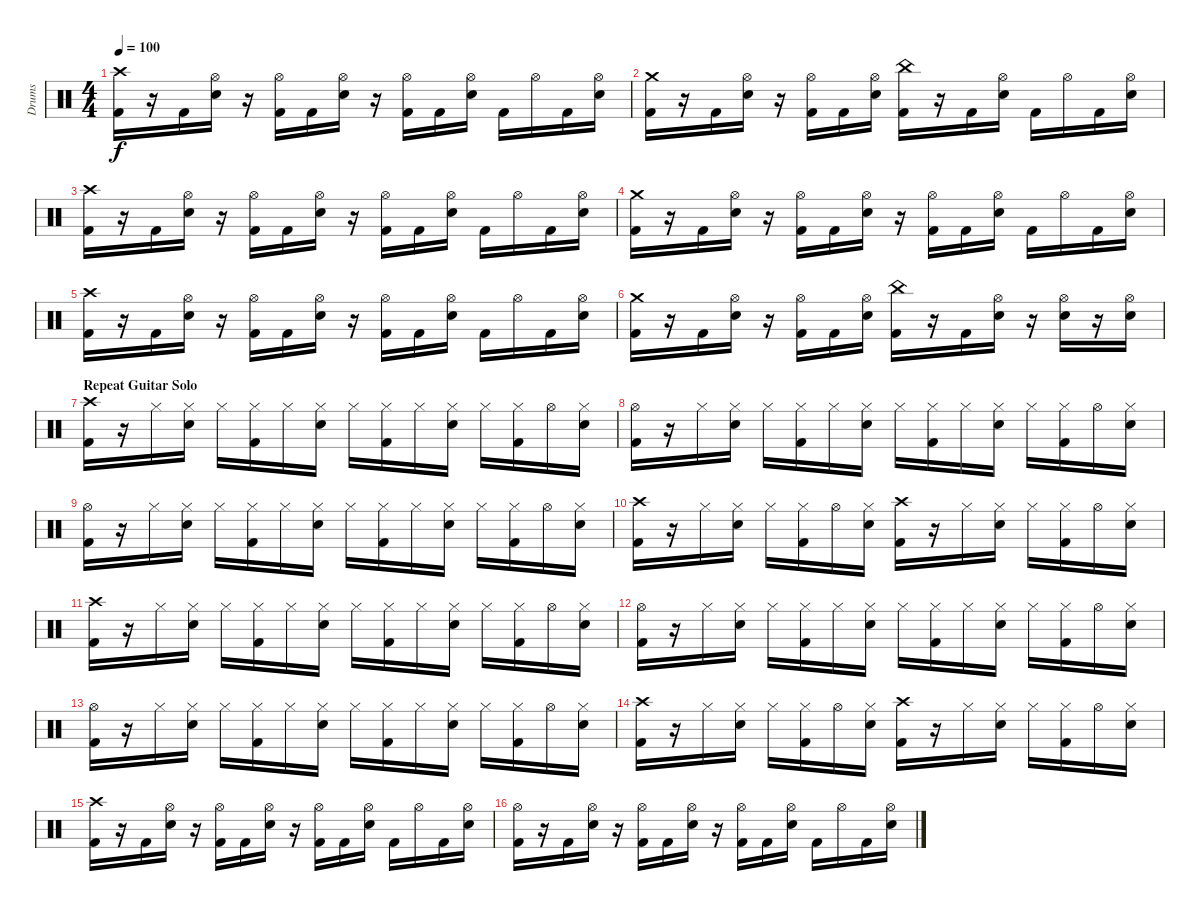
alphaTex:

\track ("Drums" "Drums") {instrument percussion}
\staff {score}
\articulation defaults
\ts (4 4)
\tempo 100
\clef neutral
\ks c
("Crash high (hit)" "Kick (hit) 2").16{dy f} r.16 "Kick (hit) 2".16 ("Hi-Hat (open)" "Snare (hit) 2").16 r.16 ("Hi-Hat (open)" "Kick (hit) 2").16 "Kick (hit) 2".16 ("Hi-Hat (open)" "Snare (hit) 2").16 r.16 ("Hi-Hat (open)" "Kick (hit) 2").16 "Kick (hit) 2".16 ("Hi-Hat (open)" "Snare (hit) 2").16 "Kick (hit) 2".16 "Hi-Hat (open)".16 "Kick (hit) 2".16 ("Hi-Hat (open)" "Snare (hit) 2").16 |
("Crash medium (hit)" "Kick (hit) 2").16 r.16 "Kick (hit) 2".16 ("Hi-Hat (open)" "Snare (hit) 2").16 r.16 ("Hi-Hat (open)" "Kick (hit) 2").16 "Kick (hit) 2".16 ("Hi-Hat (open)" "Snare (hit) 2").16 ("China (hit)" "Kick (hit) 2").16 r.16 "Kick (hit) 2".16 ("Hi-Hat (open)" "Snare (hit) 2").16 "Kick (hit) 2".16 "Hi-Hat (open)".16 "Kick (hit) 2".16 ("Hi-Hat (open)" "Snare (hit) 2").16 |
("Crash high (hit)" "Kick (hit) 2").16 r.16 "Kick (hit) 2".16 ("Hi-Hat (open)" "Snare (hit) 2").16 r.16 ("Hi-Hat (open)" "Kick (hit) 2").16 "Kick (hit) 2".16 ("Hi-Hat (open)" "Snare (hit) 2").16 r.16 ("Hi-Hat (open)" "Kick (hit) 2").16 "Kick (hit) 2".16 ("Hi-Hat (open)" "Snare (hit) 2").16 "Kick (hit) 2".16 "Hi-Hat (open)".16 "Kick (hit) 2".16 ("Hi-Hat (open)" "Snare (hit) 2").16 |
("Crash medium (hit)" "Kick (hit) 2").16 r.16 "Kick (hit) 2".16 ("Hi-Hat (open)" "Snare (hit) 2").16 r.16 ("Hi-Hat (open)" "Kick (hit) 2").16 "Kick (hit) 2".16 ("Hi-Hat (open)" "Snare (hit) 2").16 r.16 ("Hi-Hat (open)" "Kick (hit) 2").16 "Kick (hit) 2".16 ("Hi-Hat (open)" "Snare (hit) 2").16 "Kick (hit) 2".16 "Hi-Hat (open)".16 "Kick (hit) 2".16 ("Hi-Hat (open)" "Snare (hit) 2").16 |
("Crash high (hit)" "Kick (hit) 2").16 r.16 "Kick (hit) 2".16 ("Hi-Hat (open)" "Snare (hit) 2").16 r.16 ("Hi-Hat (open)" "Kick (hit) 2").16 "Kick (hit) 2".16 ("Hi-Hat (open)" "Snare (hit) 2").16 r.16 ("Hi-Hat (open)" "Kick (hit) 2").16 "Kick (hit) 2".16 ("Hi-Hat (open)" "Snare (hit) 2").16 "Kick (hit) 2".16 "Hi-Hat (open)".16 "Kick (hit) 2".16 ("Hi-Hat (open)" "Snare (hit) 2").16 |
("Crash medium (hit)" "Kick (hit) 2").16 r.16 "Kick (hit) 2".16 ("Hi-Hat (open)" "Snare (hit) 2").16 r.16 ("Hi-Hat (open)" "Kick (hit) 2").16 "Kick (hit) 2".16 ("Hi-Hat (open)" "Snare (hit) 2").16 ("China (hit)" "Kick (hit) 2").16 r.16 "Kick (hit) 2".16 ("Hi-Hat (open)" "Snare (hit) 2").16 r.16 ("Hi-Hat (open)" "Snare (hit) 2").16 r.16 ("Hi-Hat (open)" "Snare (hit) 2").16 |
\section ("" "Repeat Guitar Solo")
("Crash high (hit)" "Kick (hit) 2").16 r.16 "Hi-Hat (closed)".16 ("Hi-Hat (closed)" "Snare (hit) 2").16 "Hi-Hat (closed)".16 ("Hi-Hat (closed)" "Kick (hit) 2").16 "Hi-Hat (closed)".16 ("Hi-Hat (closed)" "Snare (hit) 2").16 "Hi-Hat (closed)".16 ("Hi-Hat (closed)" "Kick (hit) 2").16 "Hi-Hat (closed)".16 ("Hi-Hat (closed)" "Snare (hit) 2").16 "Hi-Hat (closed)".16 ("Hi-Hat (closed)" "Kick (hit) 2").16 "Hi-Hat (open)".16 ("Hi-Hat (closed)" "Snare (hit) 2").16 |
("Hi-Hat (open)" "Kick (hit) 2").16 r.16 "Hi-Hat (closed)".16 ("Hi-Hat (closed)" "Snare (hit) 2").16 "Hi-Hat (closed)".16 ("Hi-Hat (closed)" "Kick (hit) 2").16 "Hi-Hat (closed)".16 ("Hi-Hat (closed)" "Snare (hit) 2").16 "Hi-Hat (closed)".16 ("Hi-Hat (closed)" "Kick (hit) 2").16 "Hi-Hat (closed)".16 ("Hi-Hat (closed)" "Snare (hit) 2").16 "Hi-Hat (closed)".16 ("Hi-Hat (closed)" "Kick (hit) 2").16 "Hi-Hat (open)".16 ("Hi-Hat (closed)" "Snare (hit) 2").16 |
("Hi-Hat (open)" "Kick (hit) 2").16 r.16 "Hi-Hat (closed)".16 ("Hi-Hat (closed)" "Snare (hit) 2").16 "Hi-Hat (closed)".16 ("Hi-Hat (closed)" "Kick (hit) 2").16 "Hi-Hat (closed)".16 ("Hi-Hat (closed)" "Snare (hit) 2").16 "Hi-Hat (closed)".16 ("Hi-Hat (closed)" "Kick (hit) 2").16 "Hi-Hat (closed)".16 ("Hi-Hat (closed)" "Snare (hit) 2").16 "Hi-Hat (closed)".16 ("Hi-Hat (closed)" "Kick (hit) 2").16 "Hi-Hat (open)".16 ("Hi-Hat (closed)" "Snare (hit) 2").16 |
("Crash high (hit)" "Kick (hit) 2").16 r.16 "Hi-Hat (closed)".16 ("Hi-Hat (closed)" "Snare (hit) 2").16 "Hi-Hat (closed)".16 ("Hi-Hat (closed)" "Kick (hit) 2").16 "Hi-Hat (open)".16 ("Hi-Hat (closed)" "Snare (hit) 2").16 ("Crash high (hit)" "Kick (hit) 2").16 r.16 "Hi-Hat (closed)".16 ("Hi-Hat (closed)" "Snare (hit) 2").16 "Hi-Hat (closed)".16 ("Hi-Hat (closed)" "Kick (hit) 2").16 "Hi-Hat (open)".16 ("Hi-Hat (closed)" "Snare (hit) 2").16 |
("Crash high (hit)" "Kick (hit) 2").16 r.16 "Hi-Hat (closed)".16 ("Hi-Hat (closed)" "Snare (hit) 2").16 "Hi-Hat (closed)".16 ("Hi-Hat (closed)" "Kick (hit) 2").16 "Hi-Hat (closed)".16 ("Hi-Hat (closed)" "Snare (hit) 2").16 "Hi-Hat (closed)".16 ("Hi-Hat (closed)" "Kick (hit) 2").16 "Hi-Hat (closed)".16 ("Hi-Hat (closed)" "Snare (hit) 2").16 "Hi-Hat (closed)".16 ("Hi-Hat (closed)" "Kick (hit) 2").16 "Hi-Hat (open)".16 ("Hi-Hat (closed)" "Snare (hit) 2").16 |
("Hi-Hat (open)" "Kick (hit) 2").16 r.16 "Hi-Hat (closed)".16 ("Hi-Hat (closed)" "Snare (hit) 2").16 "Hi-Hat (closed)".16 ("Hi-Hat (closed)" "Kick (hit) 2").16 "Hi-Hat (closed)".16 ("Hi-Hat (closed)" "Snare (hit) 2").16 "Hi-Hat (closed)".16 ("Hi-Hat (closed)" "Kick (hit) 2").16 "Hi-Hat (closed)".16 ("Hi-Hat (closed)" "Snare (hit) 2").16 "Hi-Hat (closed)".16 ("Hi-Hat (closed)" "Kick (hit) 2").16 "Hi-Hat (open)".16 ("Hi-Hat (closed)" "Snare (hit) 2").16 |
("Hi-Hat (open)" "Kick (hit) 2").16 r.16 "Hi-Hat (closed)".16 ("Hi-Hat (closed)" "Snare (hit) 2").16 "Hi-Hat (closed)".16 ("Hi-Hat (closed)" "Kick (hit) 2").16 "Hi-Hat (closed)".16 ("Hi-Hat (closed)" "Snare (hit) 2").16 "Hi-Hat (closed)".16 ("Hi-Hat (closed)" "Kick (hit) 2").16 "Hi-Hat (closed)".16 ("Hi-Hat (closed)" "Snare (hit) 2").16 "Hi-Hat (closed)".16 ("Hi-Hat (closed)" "Kick (hit) 2").16 "Hi-Hat (open)".16 ("Hi-Hat (closed)" "Snare (hit) 2").16 |
("Crash high (hit)" "Kick (hit) 2").16 r.16 "Hi-Hat (closed)".16 ("Hi-Hat (closed)" "Snare (hit) 2").16 "Hi-Hat (closed)".16 ("Hi-Hat (closed)" "Kick (hit) 2").16 "Hi-Hat (open)".16 ("Hi-Hat (closed)" "Snare (hit) 2").16 ("Crash high (hit)" "Kick (hit) 2").16 r.16 "Hi-Hat (closed)".16 ("Hi-Hat (closed)" "Snare (hit) 2").16 "Hi-Hat (closed)".16 ("Hi-Hat (closed)" "Kick (hit) 2").16 "Hi-Hat (open)".16 ("Hi-Hat (closed)" "Snare (hit) 2").16 |
("Crash high (hit)" "Kick (hit) 2").16 r.16 "Kick (hit) 2".16 ("Hi-Hat (open)" "Snare (hit) 2").16 r.16 ("Hi-Hat (open)" "Kick (hit) 2").16 "Kick (hit) 2".16 ("Hi-Hat (open)" "Snare (hit) 2").16 r.16 ("Hi-Hat (open)" "Kick (hit) 2").16 "Kick (hit) 2".16 ("Hi-Hat (open)" "Snare (hit) 2").16 "Kick (hit) 2".16 "Hi-Hat (open)".16 "Kick (hit) 2".16 ("Hi-Hat (open)" "Snare (hit) 2").16 |
("Hi-Hat (open)" "Kick (hit) 2").16 r.16 "Kick (hit) 2".16 ("Hi-Hat (open)" "Snare (hit) 2").16 r.16 ("Hi-Hat (open)" "Kick (hit) 2").16 "Kick (hit) 2".16 ("Hi-Hat (open)" "Snare (hit) 2").16 r.16 ("Hi-Hat (open)" "Kick (hit) 2").16 "Kick (hit) 2".16 ("Hi-Hat (open)" "Snare (hit) 2").16 "Kick (hit) 2".16 "Hi-Hat (open)".16 "Kick (hit) 2".16 ("Hi-Hat (open)" "Snare (hit) 2").16
